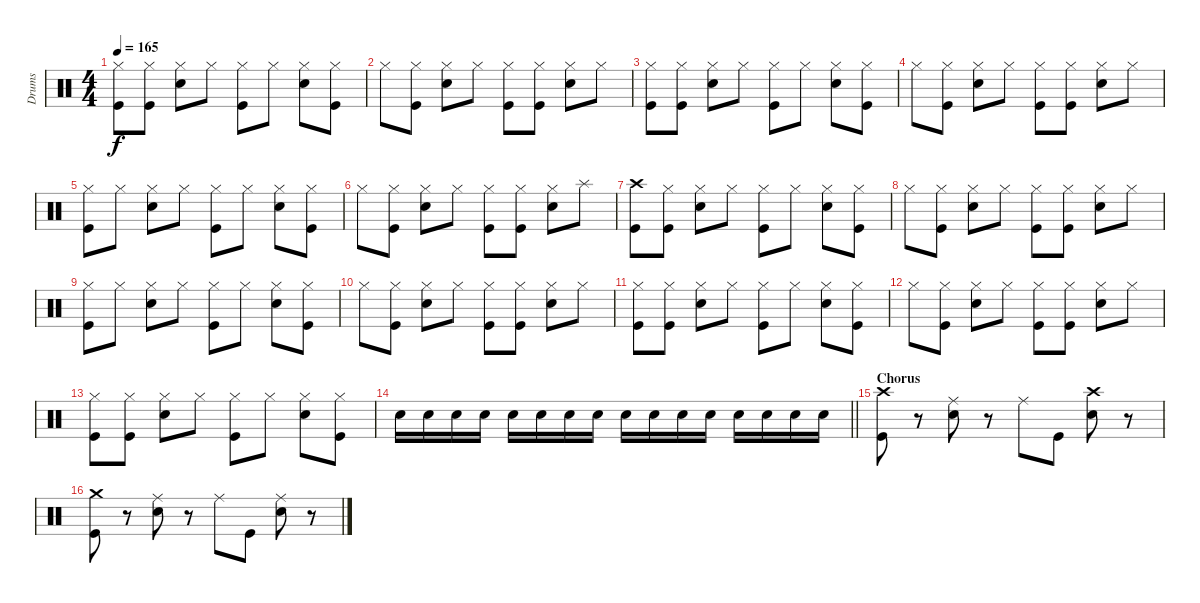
\track ("Drums" "Drums") {instrument percussion}
\staff {score}
\articulation defaults
\ts (4 4)
\tempo 165
\clef neutral
\ks c
("Hi-Hat (closed)" "Kick (hit)").8{dy f} ("Hi-Hat (closed)" "Kick (hit)").8 ("Hi-Hat (closed)" "Snare (hit) 2").8 "Hi-Hat (closed)".8 ("Hi-Hat (closed)" "Kick (hit)").8 "Hi-Hat (closed)".8 ("Hi-Hat (closed)" "Snare (hit) 2").8 ("Hi-Hat (closed)" "Kick (hit)").8 |
"Hi-Hat (closed)".8 ("Hi-Hat (closed)" "Kick (hit)").8 ("Hi-Hat (closed)" "Snare (hit) 2").8 "Hi-Hat (closed)".8 ("Hi-Hat (closed)" "Kick (hit)").8 ("Hi-Hat (closed)" "Kick (hit)").8 ("Hi-Hat (closed)" "Snare (hit) 2").8 "Hi-Hat (closed)".8 |
("Hi-Hat (closed)" "Kick (hit)").8 ("Hi-Hat (closed)" "Kick (hit)").8 ("Hi-Hat (closed)" "Snare (hit) 2").8 "Hi-Hat (closed)".8 ("Hi-Hat (closed)" "Kick (hit)").8 "Hi-Hat (closed)".8 ("Hi-Hat (closed)" "Snare (hit) 2").8 ("Hi-Hat (closed)" "Kick (hit)").8 |
"Hi-Hat (closed)".8 ("Hi-Hat (closed)" "Kick (hit)").8 ("Hi-Hat (closed)" "Snare (hit) 2").8 "Hi-Hat (closed)".8 ("Hi-Hat (closed)" "Kick (hit)").8 ("Hi-Hat (closed)" "Kick (hit)").8 ("Hi-Hat (closed)" "Snare (hit) 2").8 "Hi-Hat (closed)".8 |
("Hi-Hat (closed)" "Kick (hit)").8 "Hi-Hat (closed)".8 ("Hi-Hat (closed)" "Snare (hit) 2").8 "Hi-Hat (closed)".8 ("Hi-Hat (closed)" "Kick (hit)").8 "Hi-Hat (closed)".8 ("Hi-Hat (closed)" "Snare (hit) 2").8 ("Hi-Hat (closed)" "Kick (hit)").8 |
"Hi-Hat (closed)".8 ("Hi-Hat (closed)" "Kick (hit)").8 ("Hi-Hat (closed)" "Snare (hit) 2").8 "Hi-Hat (closed)".8 ("Hi-Hat (closed)" "Kick (hit)").8 ("Hi-Hat (closed)" "Kick (hit)").8 ("Hi-Hat (closed)" "Snare (hit) 2").8 "Splash (hit)".8 |
("Crash high (hit)" "Kick (hit)").8 ("Hi-Hat (closed)" "Kick (hit)").8 ("Hi-Hat (closed)" "Snare (hit) 2").8 "Hi-Hat (closed)".8 ("Hi-Hat (closed)" "Kick (hit)").8 "Hi-Hat (closed)".8 ("Hi-Hat (closed)" "Snare (hit) 2").8 ("Hi-Hat (closed)" "Kick (hit)").8 |
"Hi-Hat (closed)".8 ("Hi-Hat (closed)" "Kick (hit)").8 ("Hi-Hat (closed)" "Snare (hit) 2").8 "Hi-Hat (closed)".8 ("Hi-Hat (closed)" "Kick (hit)").8 ("Hi-Hat (closed)" "Kick (hit)").8 ("Hi-Hat (closed)" "Snare (hit) 2").8 "Hi-Hat (closed)".8 |
("Hi-Hat (closed)" "Kick (hit)").8 "Hi-Hat (closed)".8 ("Hi-Hat (closed)" "Snare (hit) 2").8 "Hi-Hat (closed)".8 ("Hi-Hat (closed)" "Kick (hit)").8 "Hi-Hat (closed)".8 ("Hi-Hat (closed)" "Snare (hit) 2").8 ("Hi-Hat (closed)" "Kick (hit)").8 |
"Hi-Hat (closed)".8 ("Hi-Hat (closed)" "Kick (hit)").8 ("Hi-Hat (closed)" "Snare (hit) 2").8 "Hi-Hat (closed)".8 ("Hi-Hat (closed)" "Kick (hit)").8 ("Hi-Hat (closed)" "Kick (hit)").8 ("Hi-Hat (closed)" "Snare (hit) 2").8 "Hi-Hat (closed)".8 |
("Hi-Hat (closed)" "Kick (hit)").8 ("Hi-Hat (closed)" "Kick (hit)").8 ("Hi-Hat (closed)" "Snare (hit) 2").8 "Hi-Hat (closed)".8 ("Hi-Hat (closed)" "Kick (hit)").8 "Hi-Hat (closed)".8 ("Hi-Hat (closed)" "Snare (hit) 2").8 ("Hi-Hat (closed)" "Kick (hit)").8 |
"Hi-Hat (closed)".8 ("Hi-Hat (closed)" "Kick (hit)").8 ("Hi-Hat (closed)" "Snare (hit) 2").8 "Hi-Hat (closed)".8 ("Hi-Hat (closed)" "Kick (hit)").8 ("Hi-Hat (closed)" "Kick (hit)").8 ("Hi-Hat (closed)" "Snare (hit) 2").8 "Hi-Hat (closed)".8 |
("Hi-Hat (closed)" "Kick (hit)").8 ("Hi-Hat (closed)" "Kick (hit)").8 ("Hi-Hat (closed)" "Snare (hit) 2").8 "Hi-Hat (closed)".8 ("Hi-Hat (closed)" "Kick (hit)").8 "Hi-Hat (closed)".8 ("Hi-Hat (closed)" "Snare (hit) 2").8 ("Hi-Hat (closed)" "Kick (hit)").8 |
\barLineRight lightlight "Snare (hit) 2".16 "Snare (hit) 2".16 "Snare (hit) 2".16 "Snare (hit) 2".16 "Snare (hit) 2".16 "Snare (hit) 2".16 "Snare (hit) 2".16 "Snare (hit) 2".16 "Snare (hit) 2".16 "Snare (hit) 2".16 "Snare (hit) 2".16 "Snare (hit) 2".16 "Snare (hit) 2".16 "Snare (hit) 2".16 "Snare (hit) 2".16 "Snare (hit) 2".16
|
\section ("" "Chorus")
("Crash high (hit)" "Kick (hit)").8 r.8 ("Ride (middle)" "Snare (hit) 2").8 r.8 "Ride (middle)".8 "Kick (hit)".8 ("Crash high (hit)" "Snare (hit) 2").8 r.8 |
("Crash medium (hit)" "Kick (hit)").8 r.8 ("Ride (middle)" "Snare (hit) 2").8 r.8 "Ride (middle)".8 "Kick (hit)".8 ("Ride (middle)" "Snare (hit) 2").8 r.8
